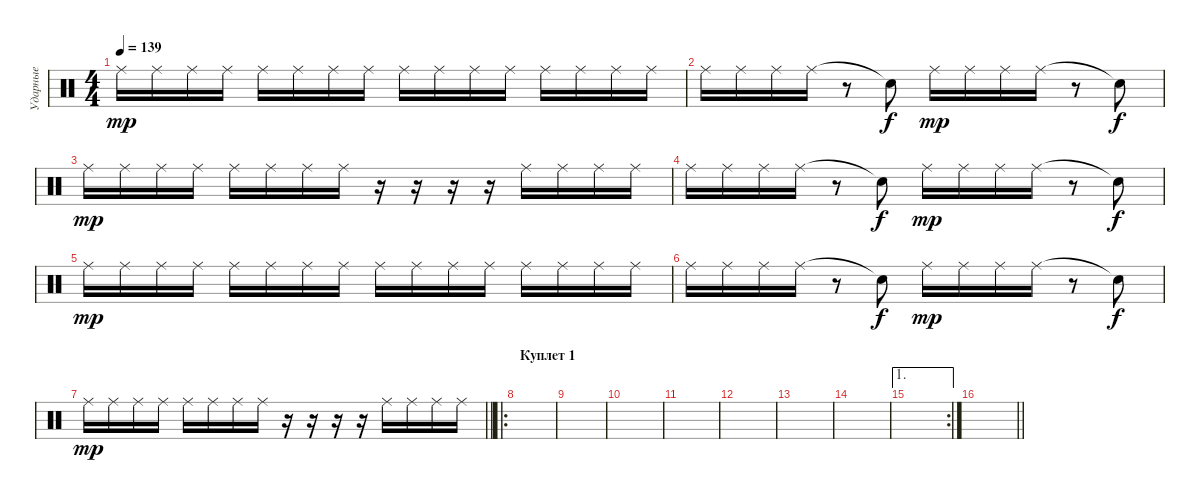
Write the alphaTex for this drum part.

\track ("Ударные" "Ударные") {instrument percussion}
\staff {score}
\articulation defaults
\ts (4 4)
\tempo 139
\clef neutral
\ks c "Ride (middle)".16{dy mp} "Ride (middle)".16 "Ride (middle)".16 "Ride (middle)".16 "Ride (middle)".16 "Ride (middle)".16 "Ride (middle)".16 "Ride (middle)".16 "Ride (middle)".16 "Ride (middle)".16 "Ride (middle)".16 "Ride (middle)".16 "Ride (middle)".16 "Ride (middle)".16 "Ride (middle)".16 "Ride (middle)".16
|
"Ride (middle)".16 "Ride (middle)".16 "Ride (middle)".16 "Ride (middle)".16 r.8 "Snare (hit)"{t}.8{dy f} "Ride (middle)".16{dy mp} "Ride (middle)".16 "Ride (middle)".16 "Ride (middle)".16 r.8 "Snare (hit)"{t}.8{dy f} |
"Ride (middle)".16{dy mp} "Ride (middle)".16 "Ride (middle)".16 "Ride (middle)".16 "Ride (middle)".16 "Ride (middle)".16 "Ride (middle)".16 "Ride (middle)".16 r.16 r.16 r.16 r.16 "Ride (middle)".16 "Ride (middle)".16 "Ride (middle)".16 "Ride (middle)".16 |
"Ride (middle)".16 "Ride (middle)".16 "Ride (middle)".16 "Ride (middle)".16 r.8 "Snare (hit)"{t}.8{dy f} "Ride (middle)".16{dy mp} "Ride (middle)".16 "Ride (middle)".16 "Ride (middle)".16 r.8 "Snare (hit)"{t}.8{dy f} |
"Ride (middle)".16{dy mp} "Ride (middle)".16 "Ride (middle)".16 "Ride (middle)".16 "Ride (middle)".16 "Ride (middle)".16 "Ride (middle)".16 "Ride (middle)".16 "Ride (middle)".16 "Ride (middle)".16 "Ride (middle)".16 "Ride (middle)".16 "Ride (middle)".16 "Ride (middle)".16 "Ride (middle)".16 "Ride (middle)".16 |
"Ride (middle)".16 "Ride (middle)".16 "Ride (middle)".16 "Ride (middle)".16 r.8 "Snare (hit)"{t}.8{dy f} "Ride (middle)".16{dy mp} "Ride (middle)".16 "Ride (middle)".16 "Ride (middle)".16 r.8 "Snare (hit)"{t}.8{dy f} |
\barLineRight lightlight "Ride (middle)".16{dy mp} "Ride (middle)".16 "Ride (middle)".16 "Ride (middle)".16 "Ride (middle)".16 "Ride (middle)".16 "Ride (middle)".16 "Ride (middle)".16
r.16 r.16 r.16 r.16 "Ride (middle)".16 "Ride (middle)".16 "Ride (middle)".16 "Ride (middle)".16 |
\ro
\section ("" "Куплет 1")
|
|
|
|
|
|
|
\ae 1
\rc 2
|
\barLineRight lightlight
